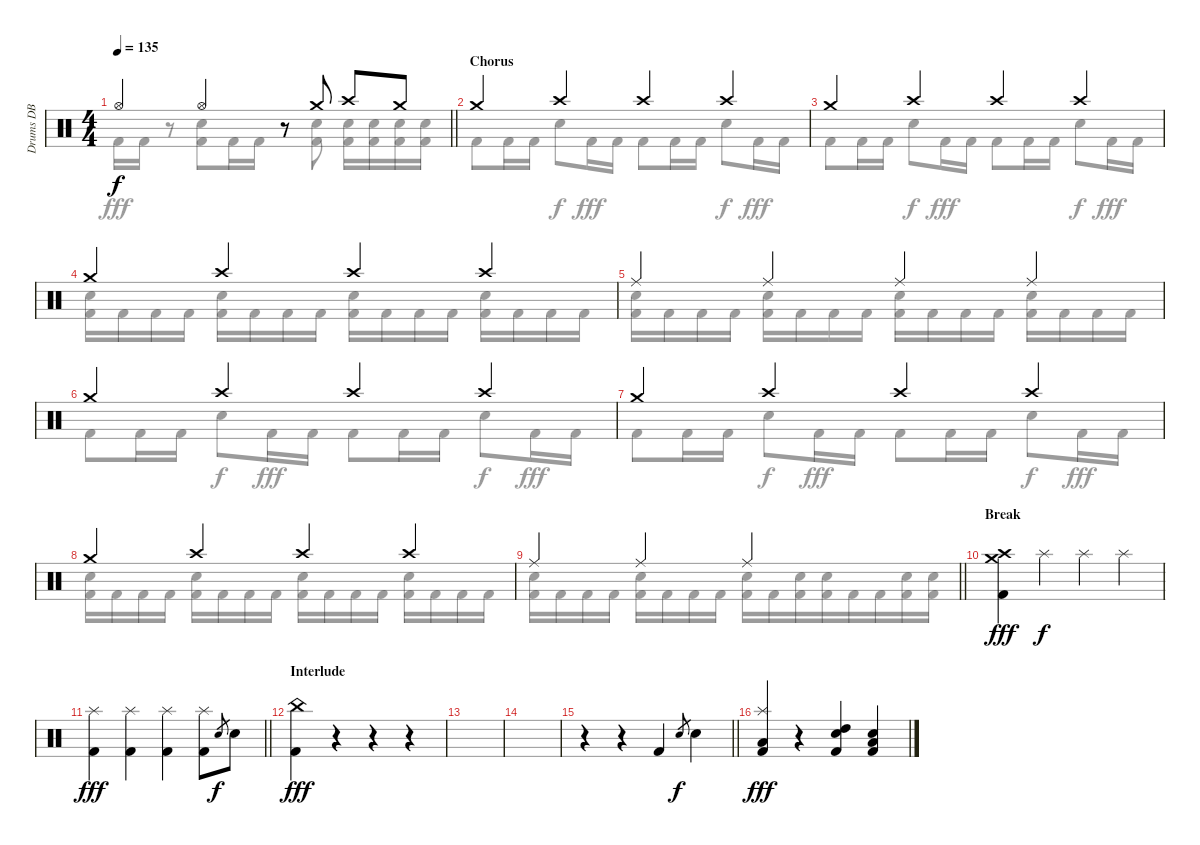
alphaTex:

\track ("Drums DB" "Drums DB") {instrument percussion}
\staff {score}
\articulation defaults
\voice
\ts (4 4)
\tempo 135
\clef neutral
\barLineRight lightlight
\ks aminor "Hi-Hat (open)".4{dy f} "Hi-Hat (open)".4
r.8 "Crash medium (hit)".8 "Crash high (hit)".8 "Crash medium (hit)".8 |
\section ("" "Chorus")
"Crash medium (hit)".4 "Crash high (hit)".4 "Crash high (hit)".4 "Crash high (hit)".4 |
"Crash medium (hit)".4 "Crash high (hit)".4 "Crash high (hit)".4 "Crash high (hit)".4 |
"Crash medium (hit)".4 "Crash high (hit)".4 "Crash high (hit)".4 "Crash high (hit)".4 |
"Ride (middle)".4 "Ride (middle)".4 "Ride (middle)".4 "Ride (middle)".4 |
"Crash medium (hit)".4 "Crash high (hit)".4 "Crash high (hit)".4 "Crash high (hit)".4 |
"Crash medium (hit)".4 "Crash high (hit)".4 "Crash high (hit)".4 "Crash high (hit)".4 |
"Crash medium (hit)".4 "Crash high (hit)".4 "Crash high (hit)".4 "Crash high (hit)".4 |
\barLineRight lightlight "Ride (middle)".4 "Ride (middle)".4 "Ride (middle)".2
|
\section ("" "Break")
\ks c
("Crash high (hit)" "Crash medium (hit)" "Kick (hit) 2").4{dy fff} "Splash (hit)".4{dy f} "Splash (hit)".4 "Splash (hit)".4 |
\barLineRight lightlight
("Splash (hit)" "Kick (hit) 2").4{dy fff} ("Splash (hit)" "Kick (hit) 2").4 ("Splash (hit)" "Kick (hit) 2").4 ("Splash (hit)" "Kick (hit) 2").8 "Snare (hit) 2".8{gr dy f} "Snare (hit) 2".8 |
\section ("" "Interlude")
("China (hit)" "Kick (hit) 2").4{dy fff} r.4 r.4 r.4 |
|
|
\barLineRight lightlight
r.4 r.4 "Kick (hit) 2".4 "Snare (hit) 2".8{gr dy f} "Snare (hit) 2".4 |
("Splash (hit)" "Low Floor Tom (hit)" "Kick (hit) 2").4{dy fff} r.4 ("Snare (hit) 2" "High Tom (hit)" "Kick (hit) 2").4 ("Snare (hit) 2" "Low Tom (hit)" "Kick (hit) 2").4
\voice
\clef neutral
\ottava regular
\simile none
\barLineRight lightlight
\ks aminor "Kick (hit) 2".16{dy fff} "Kick (hit) 2".16
r.8 ("Snare (hit) 2" "Kick (hit) 2").8 "Kick (hit) 2".16 "Kick (hit) 2".16 r.8 ("Snare (hit) 2" "Kick (hit) 2").8 ("Snare (hit) 2" "Kick (hit) 2").16 ("Snare (hit) 2" "Kick (hit) 2").16 ("Snare (hit) 2" "Kick (hit) 2").16 ("Snare (hit) 2" "Kick (hit) 2").16 |
"Kick (hit) 2".8 "Kick (hit) 2".16 "Kick (hit) 2".16 "Snare (hit) 2".8{dy f} "Kick (hit) 2".16{dy fff} "Kick (hit) 2".16 "Kick (hit) 2".8 "Kick (hit) 2".16 "Kick (hit) 2".16 "Snare (hit) 2".8{dy f} "Kick (hit) 2".16{dy fff} "Kick (hit) 2".16 |
"Kick (hit) 2".8 "Kick (hit) 2".16 "Kick (hit) 2".16 "Snare (hit) 2".8{dy f} "Kick (hit) 2".16{dy fff} "Kick (hit) 2".16 "Kick (hit) 2".8 "Kick (hit) 2".16 "Kick (hit) 2".16 "Snare (hit) 2".8{dy f} "Kick (hit) 2".16{dy fff} "Kick (hit) 2".16 |
("Snare (hit) 2" "Kick (hit) 2").16 "Kick (hit) 2".16 "Kick (hit) 2".16 "Kick (hit) 2".16 ("Snare (hit) 2" "Kick (hit) 2").16 "Kick (hit) 2".16 "Kick (hit) 2".16 "Kick (hit) 2".16 ("Snare (hit) 2" "Kick (hit) 2").16 "Kick (hit) 2".16 "Kick (hit) 2".16 "Kick (hit) 2".16 ("Snare (hit) 2" "Kick (hit) 2").16 "Kick (hit) 2".16 "Kick (hit) 2".16 "Kick (hit) 2".16 |
("Snare (hit) 2" "Kick (hit) 2").16 "Kick (hit) 2".16 "Kick (hit) 2".16 "Kick (hit) 2".16 ("Snare (hit) 2" "Kick (hit) 2").16 "Kick (hit) 2".16 "Kick (hit) 2".16 "Kick (hit) 2".16 ("Snare (hit) 2" "Kick (hit) 2").16 "Kick (hit) 2".16 "Kick (hit) 2".16 "Kick (hit) 2".16 ("Snare (hit) 2" "Kick (hit) 2").16 "Kick (hit) 2".16 "Kick (hit) 2".16 "Kick (hit) 2".16 |
"Kick (hit) 2".8 "Kick (hit) 2".16 "Kick (hit) 2".16 "Snare (hit) 2".8{dy f} "Kick (hit) 2".16{dy fff} "Kick (hit) 2".16 "Kick (hit) 2".8 "Kick (hit) 2".16 "Kick (hit) 2".16 "Snare (hit) 2".8{dy f} "Kick (hit) 2".16{dy fff} "Kick (hit) 2".16 |
"Kick (hit) 2".8 "Kick (hit) 2".16 "Kick (hit) 2".16 "Snare (hit) 2".8{dy f} "Kick (hit) 2".16{dy fff} "Kick (hit) 2".16 "Kick (hit) 2".8 "Kick (hit) 2".16 "Kick (hit) 2".16 "Snare (hit) 2".8{dy f} "Kick (hit) 2".16{dy fff} "Kick (hit) 2".16 |
("Snare (hit) 2" "Kick (hit) 2").16 "Kick (hit) 2".16 "Kick (hit) 2".16 "Kick (hit) 2".16 ("Snare (hit) 2" "Kick (hit) 2").16 "Kick (hit) 2".16 "Kick (hit) 2".16 "Kick (hit) 2".16 ("Snare (hit) 2" "Kick (hit) 2").16 "Kick (hit) 2".16 "Kick (hit) 2".16 "Kick (hit) 2".16 ("Snare (hit) 2" "Kick (hit) 2").16 "Kick (hit) 2".16 "Kick (hit) 2".16 "Kick (hit) 2".16 |
\barLineRight lightlight
("Snare (hit) 2" "Kick (hit) 2").16 "Kick (hit) 2".16 "Kick (hit) 2".16 "Kick (hit) 2".16 ("Snare (hit) 2" "Kick (hit) 2").16 "Kick (hit) 2".16 "Kick (hit) 2".16 "Kick (hit) 2".16 ("Snare (hit) 2" "Kick (hit) 2").16 "Kick (hit) 2".16{beam merge} ("Snare (hit) 2" "Kick (hit) 2").16 ("Snare (hit) 2" "Kick (hit) 2").16{beam merge} "Kick (hit) 2".16 "Kick (hit) 2".16{beam merge} ("Snare (hit) 2" "Kick (hit) 2").16 ("Snare (hit) 2" "Kick (hit) 2").16 |
\ks c
|
\barLineRight lightlight
|
|
|
|
\barLineRight lightlight
|
